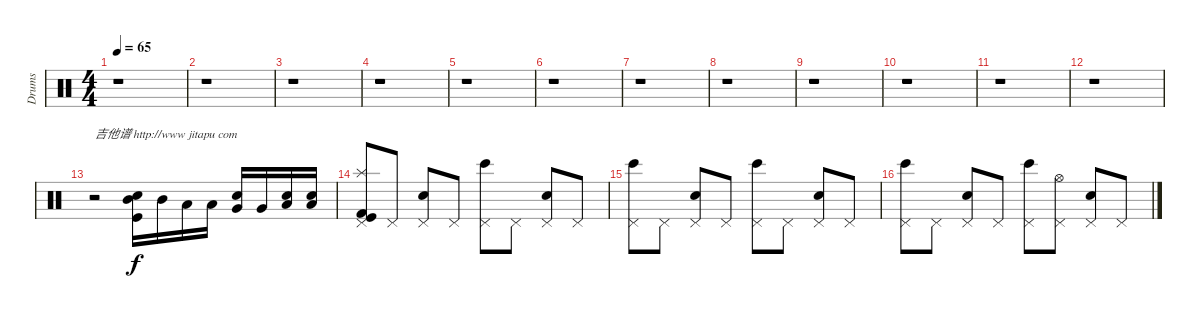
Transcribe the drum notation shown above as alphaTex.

\track ("Drums" "Drums") {instrument percussion}
\staff {score}
\articulation defaults
\ts (4 4)
\tempo 65
\clef neutral
\ks c
r.1{dy f} |
r.1 |
r.1 |
r.1 |
r.1 |
r.1 |
r.1 |
r.1 |
r.1 |
r.1 |
r.1 |
r.1 |
r.2{txt "吉他谱 http://www jitapu com"} ("Snare (hit) 2" "Kick (hit)" "Mid Tom (hit)").16 "Mid Tom (hit)".16 "Low Tom (hit)".16 "Low Tom (hit)".16 ("Snare (hit) 2" "Very Low Tom (hit)").16 "Very Low Tom (hit)".16 ("Snare (hit) 2" "Low Floor Tom (hit)").16 ("Snare (hit) 2" "Low Floor Tom (hit)").16 |
("Pedal Hi-Hat (hit)" "Splash (hit)" "Kick (hit)" "Kick (hit) 2").8 "Pedal Hi-Hat (hit)".8 ("Pedal Hi-Hat (hit)" "Snare (hit) 2").8 "Pedal Hi-Hat (hit)".8 ("Pedal Hi-Hat (hit)" "Bongo High (hit)").8 "Pedal Hi-Hat (hit)".8 ("Pedal Hi-Hat (hit)" "Snare (hit) 2").8 "Pedal Hi-Hat (hit)".8 |
("Pedal Hi-Hat (hit)" "Bongo High (hit)").8 "Pedal Hi-Hat (hit)".8 ("Pedal Hi-Hat (hit)" "Snare (hit) 2").8 "Pedal Hi-Hat (hit)".8 ("Pedal Hi-Hat (hit)" "Bongo High (hit)").8 "Pedal Hi-Hat (hit)".8 ("Pedal Hi-Hat (hit)" "Snare (hit) 2").8 "Pedal Hi-Hat (hit)".8 |
("Pedal Hi-Hat (hit)" "Bongo High (hit)").8 "Pedal Hi-Hat (hit)".8 ("Pedal Hi-Hat (hit)" "Snare (hit) 2").8 "Pedal Hi-Hat (hit)".8 ("Pedal Hi-Hat (hit)" "Bongo High (hit)").8 ("Pedal Hi-Hat (hit)" "Hi-Hat (open)").8 ("Pedal Hi-Hat (hit)" "Snare (hit) 2").8 "Pedal Hi-Hat (hit)".8
